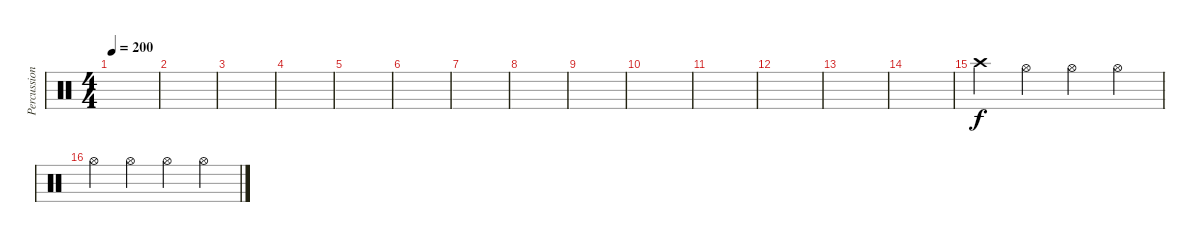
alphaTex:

\track ("Percussion" "Percussion") {instrument percussion}
\staff {score}
\articulation defaults
\ts (4 4)
\tempo 200
\clef neutral
\ks c
|
|
|
|
|
|
|
|
|
|
|
|
|
|
"Crash high (hit)".4 "Hi-Hat (open)".4 "Hi-Hat (open)".4 "Hi-Hat (open)".4 |
"Hi-Hat (open)".4 "Hi-Hat (open)".4 "Hi-Hat (open)".4 "Hi-Hat (open)".4
